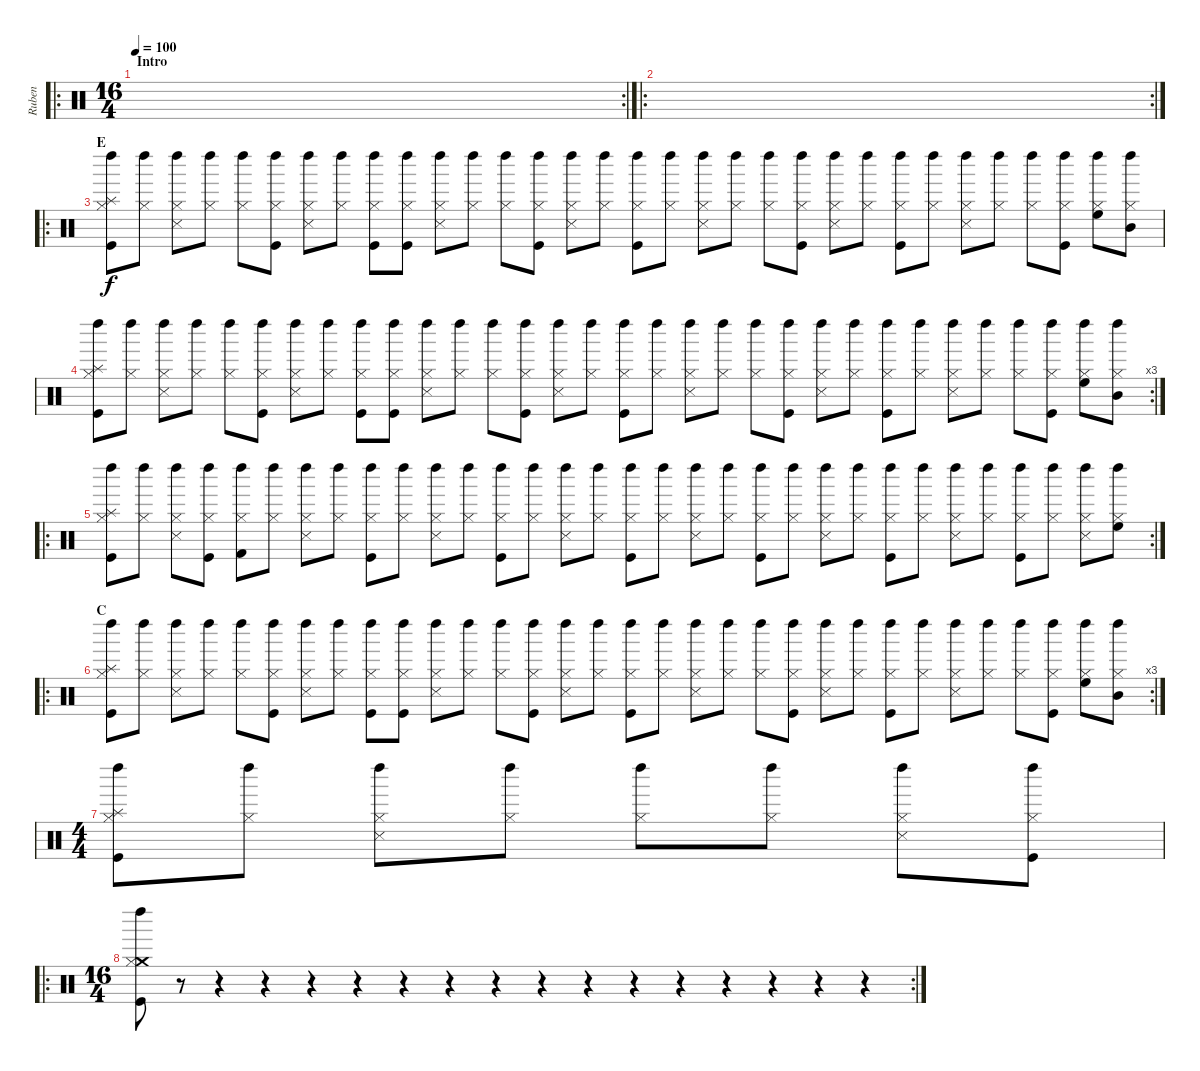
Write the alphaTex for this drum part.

\track ("Ruben" "Ruben") {instrument percussion}
\staff {score}
\articulation defaults
\ro
\rc 2
\ts (16 4)
\section ("" "Intro")
\tempo 100
\clef neutral
\ks c
|
\ro
\rc 2
|
\ro
\section ("" "E")
("Left Maraca (hit)" "Hi-Hat (closed)" "Splash (hit)" "Kick (hit)").8 ("Left Maraca (hit)" "Hi-Hat (closed)").8 ("Left Maraca (hit)" "Hi-Hat (closed)" "Snare (side stick) 3").8 ("Left Maraca (hit)" "Hi-Hat (closed)").8 ("Left Maraca (hit)" "Hi-Hat (closed)").8 ("Left Maraca (hit)" "Hi-Hat (closed)" "Kick (hit)").8 ("Left Maraca (hit)" "Hi-Hat (closed)" "Snare (side stick) 3").8 ("Left Maraca (hit)" "Hi-Hat (closed)").8 ("Left Maraca (hit)" "Hi-Hat (closed)" "Kick (hit)").8 ("Left Maraca (hit)" "Hi-Hat (closed)" "Kick (hit)").8 ("Left Maraca (hit)" "Hi-Hat (closed)" "Snare (side stick) 3").8 ("Left Maraca (hit)" "Hi-Hat (closed)").8 ("Left Maraca (hit)" "Hi-Hat (closed)").8 ("Left Maraca (hit)" "Hi-Hat (closed)" "Kick (hit)").8 ("Left Maraca (hit)" "Hi-Hat (closed)" "Snare (side stick) 3").8 ("Left Maraca (hit)" "Hi-Hat (closed)").8 ("Left Maraca (hit)" "Hi-Hat (closed)" "Kick (hit)").8 ("Left Maraca (hit)" "Hi-Hat (closed)").8 ("Left Maraca (hit)" "Hi-Hat (closed)" "Snare (side stick) 3").8 ("Left Maraca (hit)" "Hi-Hat (closed)").8 ("Left Maraca (hit)" "Hi-Hat (closed)").8 ("Left Maraca (hit)" "Hi-Hat (closed)" "Kick (hit)").8 ("Left Maraca (hit)" "Hi-Hat (closed)" "Snare (side stick) 3").8 ("Left Maraca (hit)" "Hi-Hat (closed)").8 ("Left Maraca (hit)" "Hi-Hat (closed)" "Kick (hit)").8 ("Left Maraca (hit)" "Hi-Hat (closed)").8 ("Left Maraca (hit)" "Hi-Hat (closed)" "Snare (side stick) 3").8 ("Left Maraca (hit)" "Hi-Hat (closed)").8 ("Left Maraca (hit)" "Hi-Hat (closed)").8 ("Left Maraca (hit)" "Hi-Hat (closed)" "Kick (hit)").8 ("Left Maraca (hit)" "Hi-Hat (closed)" "High Floor Tom (hit)").8 ("Left Maraca (hit)" "Hi-Hat (closed)" "Mid Tom (hit)").8 |
\rc 3
("Left Maraca (hit)" "Hi-Hat (closed)" "Splash (hit)" "Kick (hit)").8 ("Left Maraca (hit)" "Hi-Hat (closed)").8 ("Left Maraca (hit)" "Hi-Hat (closed)" "Snare (side stick) 3").8 ("Left Maraca (hit)" "Hi-Hat (closed)").8 ("Left Maraca (hit)" "Hi-Hat (closed)").8 ("Left Maraca (hit)" "Hi-Hat (closed)" "Kick (hit)").8 ("Left Maraca (hit)" "Hi-Hat (closed)" "Snare (side stick) 3").8 ("Left Maraca (hit)" "Hi-Hat (closed)").8 ("Left Maraca (hit)" "Hi-Hat (closed)" "Kick (hit)").8 ("Left Maraca (hit)" "Hi-Hat (closed)" "Kick (hit)").8 ("Left Maraca (hit)" "Hi-Hat (closed)" "Snare (side stick) 3").8 ("Left Maraca (hit)" "Hi-Hat (closed)").8 ("Left Maraca (hit)" "Hi-Hat (closed)").8 ("Left Maraca (hit)" "Hi-Hat (closed)" "Kick (hit)").8 ("Left Maraca (hit)" "Hi-Hat (closed)" "Snare (side stick) 3").8 ("Left Maraca (hit)" "Hi-Hat (closed)").8 ("Left Maraca (hit)" "Hi-Hat (closed)" "Kick (hit)").8 ("Left Maraca (hit)" "Hi-Hat (closed)").8 ("Left Maraca (hit)" "Hi-Hat (closed)" "Snare (side stick) 3").8 ("Left Maraca (hit)" "Hi-Hat (closed)").8 ("Left Maraca (hit)" "Hi-Hat (closed)").8 ("Left Maraca (hit)" "Hi-Hat (closed)" "Kick (hit)").8 ("Left Maraca (hit)" "Hi-Hat (closed)" "Snare (side stick) 3").8 ("Left Maraca (hit)" "Hi-Hat (closed)").8 ("Left Maraca (hit)" "Hi-Hat (closed)" "Kick (hit)").8 ("Left Maraca (hit)" "Hi-Hat (closed)").8 ("Left Maraca (hit)" "Hi-Hat (closed)" "Snare (side stick) 3").8 ("Left Maraca (hit)" "Hi-Hat (closed)").8 ("Left Maraca (hit)" "Hi-Hat (closed)").8 ("Left Maraca (hit)" "Hi-Hat (closed)" "Kick (hit)").8 ("Left Maraca (hit)" "Hi-Hat (closed)" "High Floor Tom (hit)").8 ("Left Maraca (hit)" "Hi-Hat (closed)" "Mid Tom (hit)").8 |
\ro
\rc 2
("Left Maraca (hit)" "Hi-Hat (closed)" "Splash (hit)" "Kick (hit)").8 ("Left Maraca (hit)" "Hi-Hat (closed)").8 ("Left Maraca (hit)" "Hi-Hat (closed)" "Snare (side stick) 3").8 ("Left Maraca (hit)" "Hi-Hat (closed)" "Kick (hit)").8 ("Left Maraca (hit)" "Hi-Hat (closed)" "Kick (hit) 2").8 ("Left Maraca (hit)" "Hi-Hat (closed)").8 ("Left Maraca (hit)" "Hi-Hat (closed)" "Snare (side stick) 3").8 ("Left Maraca (hit)" "Hi-Hat (closed)").8 ("Left Maraca (hit)" "Hi-Hat (closed)" "Kick (hit)").8 ("Left Maraca (hit)" "Hi-Hat (closed)").8 ("Left Maraca (hit)" "Hi-Hat (closed)" "Snare (side stick) 3").8 ("Left Maraca (hit)" "Hi-Hat (closed)").8 ("Left Maraca (hit)" "Hi-Hat (closed)" "Kick (hit)").8 ("Left Maraca (hit)" "Hi-Hat (closed)").8 ("Left Maraca (hit)" "Hi-Hat (closed)" "Snare (side stick) 3").8 ("Left Maraca (hit)" "Hi-Hat (closed)").8 ("Left Maraca (hit)" "Hi-Hat (closed)" "Kick (hit)").8 ("Left Maraca (hit)" "Hi-Hat (closed)").8 ("Left Maraca (hit)" "Hi-Hat (closed)" "Snare (side stick) 3").8 ("Left Maraca (hit)" "Hi-Hat (closed)").8 ("Left Maraca (hit)" "Hi-Hat (closed)" "Kick (hit)").8 ("Left Maraca (hit)" "Hi-Hat (closed)").8 ("Left Maraca (hit)" "Hi-Hat (closed)" "Snare (side stick) 3").8 ("Left Maraca (hit)" "Hi-Hat (closed)").8 ("Left Maraca (hit)" "Hi-Hat (closed)" "Kick (hit)").8 ("Left Maraca (hit)" "Hi-Hat (closed)").8 ("Left Maraca (hit)" "Hi-Hat (closed)" "Snare (side stick) 3").8 ("Left Maraca (hit)" "Hi-Hat (closed)").8 ("Left Maraca (hit)" "Hi-Hat (closed)" "Kick (hit)").8 ("Left Maraca (hit)" "Hi-Hat (closed)").8 ("Left Maraca (hit)" "Hi-Hat (closed)" "Snare (side stick) 3").8 ("Left Maraca (hit)" "Hi-Hat (closed)" "High Floor Tom (hit)").8 |
\ro
\rc 3
\section ("" "C")
("Left Maraca (hit)" "Hi-Hat (closed)" "Splash (hit)" "Kick (hit)").8 ("Left Maraca (hit)" "Hi-Hat (closed)").8 ("Left Maraca (hit)" "Hi-Hat (closed)" "Snare (side stick) 3").8 ("Left Maraca (hit)" "Hi-Hat (closed)").8 ("Left Maraca (hit)" "Hi-Hat (closed)").8 ("Left Maraca (hit)" "Hi-Hat (closed)" "Kick (hit)").8 ("Left Maraca (hit)" "Hi-Hat (closed)" "Snare (side stick) 3").8 ("Left Maraca (hit)" "Hi-Hat (closed)").8 ("Left Maraca (hit)" "Hi-Hat (closed)" "Kick (hit)").8 ("Left Maraca (hit)" "Hi-Hat (closed)" "Kick (hit)").8 ("Left Maraca (hit)" "Hi-Hat (closed)" "Snare (side stick) 3").8 ("Left Maraca (hit)" "Hi-Hat (closed)").8 ("Left Maraca (hit)" "Hi-Hat (closed)").8 ("Left Maraca (hit)" "Hi-Hat (closed)" "Kick (hit)").8 ("Left Maraca (hit)" "Hi-Hat (closed)" "Snare (side stick) 3").8 ("Left Maraca (hit)" "Hi-Hat (closed)").8 ("Left Maraca (hit)" "Hi-Hat (closed)" "Kick (hit)").8 ("Left Maraca (hit)" "Hi-Hat (closed)").8 ("Left Maraca (hit)" "Hi-Hat (closed)" "Snare (side stick) 3").8 ("Left Maraca (hit)" "Hi-Hat (closed)").8 ("Left Maraca (hit)" "Hi-Hat (closed)").8 ("Left Maraca (hit)" "Hi-Hat (closed)" "Kick (hit)").8 ("Left Maraca (hit)" "Hi-Hat (closed)" "Snare (side stick) 3").8 ("Left Maraca (hit)" "Hi-Hat (closed)").8 ("Left Maraca (hit)" "Hi-Hat (closed)" "Kick (hit)").8 ("Left Maraca (hit)" "Hi-Hat (closed)").8 ("Left Maraca (hit)" "Hi-Hat (closed)" "Snare (side stick) 3").8 ("Left Maraca (hit)" "Hi-Hat (closed)").8 ("Left Maraca (hit)" "Hi-Hat (closed)").8 ("Left Maraca (hit)" "Hi-Hat (closed)" "Kick (hit)").8 ("Left Maraca (hit)" "Hi-Hat (closed)" "High Floor Tom (hit)").8 ("Left Maraca (hit)" "Hi-Hat (closed)" "Mid Tom (hit)").8 |
\ts (4 4)
("Left Maraca (hit)" "Hi-Hat (closed)" "Splash (hit)" "Kick (hit)").8 ("Left Maraca (hit)" "Hi-Hat (closed)").8 ("Left Maraca (hit)" "Hi-Hat (closed)" "Snare (side stick) 3").8 ("Left Maraca (hit)" "Hi-Hat (closed)").8 ("Left Maraca (hit)" "Hi-Hat (closed)").8 ("Left Maraca (hit)" "Hi-Hat (closed)").8 ("Left Maraca (hit)" "Hi-Hat (closed)" "Snare (side stick) 3").8 ("Left Maraca (hit)" "Hi-Hat (closed)" "Kick (hit)").8 |
\ro
\rc 2
\ts (16 4)
("Crash medium (hit)" "Left Maraca (hit)" "Hi-Hat (closed)" "Kick (hit)").8 r.8 r.4 r.4 r.4 r.4 r.4 r.4 r.4 r.4 r.4 r.4 r.4 r.4 r.4 r.4 r.4
